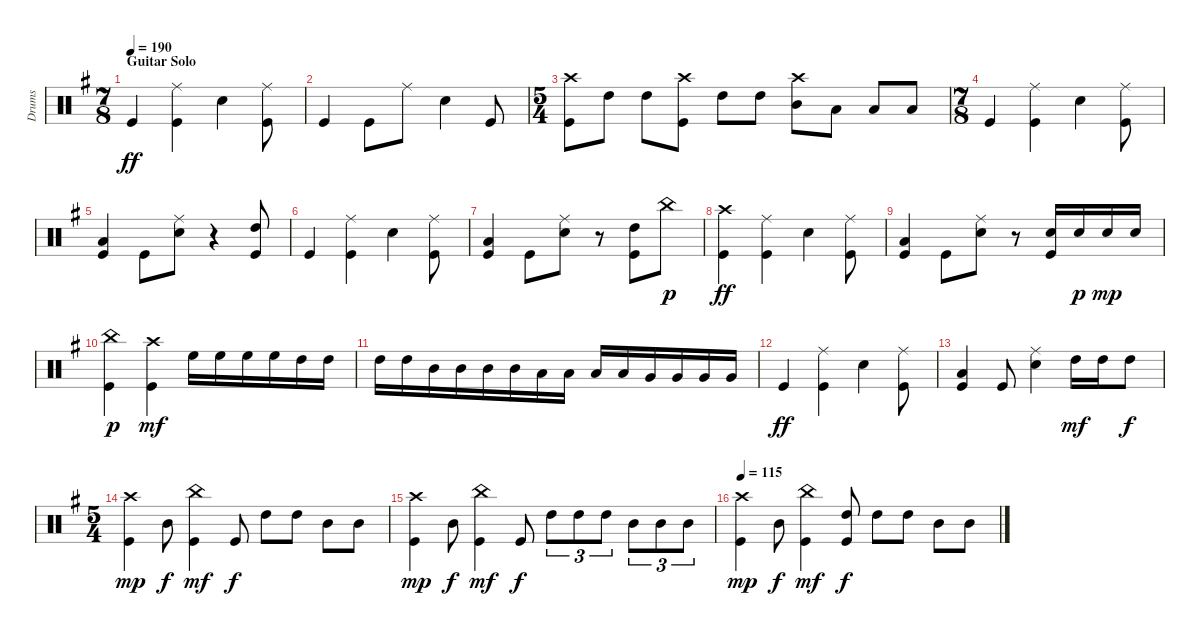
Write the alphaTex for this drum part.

\track ("Drums" "Drums") {instrument percussion}
\staff {score}
\articulation defaults
\ts (7 8)
\section ("" "Guitar Solo")
\tempo 190
\clef neutral
\ks eminor "Kick (hit)".4{dy ff}
("Ride (middle)" "Kick (hit)").4 "Snare (hit) 2".4 ("Ride (middle)" "Kick (hit)").8 |
"Kick (hit)".4 "Kick (hit)".8 "Ride (middle)".8 "Snare (hit) 2".4 "Kick (hit)".8 |
\ts (5 4)
("Crash high (hit)" "Kick (hit)").8 "High Tom (hit)".8 "High Tom (hit)".8 ("Crash high (hit)" "Kick (hit)").8 "High Tom (hit)".8 "High Tom (hit)".8 ("Crash high (hit)" "Mid Tom (hit)").8 "Low Tom (hit)".8 "Low Tom (hit)".8 "Low Tom (hit)".8 |
\ts (7 8)
"Kick (hit)".4 ("Ride (middle)" "Kick (hit)").4 "Snare (hit) 2".4 ("Ride (middle)" "Kick (hit)").8 |
("Low Tom (hit)" "Kick (hit)").4 "Kick (hit)".8 ("Ride (middle)" "Snare (hit) 2").8 r.4 ("High Tom (hit)" "Kick (hit)").8 |
"Kick (hit)".4 ("Ride (middle)" "Kick (hit)").4 "Snare (hit) 2".4 ("Ride (middle)" "Kick (hit)").8 |
("Low Tom (hit)" "Kick (hit)").4 "Kick (hit)".8 ("Ride (middle)" "Snare (hit) 2").8 r.8 ("High Tom (hit)" "Kick (hit)").8 "China (hit)".8{dy p} |
("Crash high (hit)" "Kick (hit)").4{dy ff} ("Ride (middle)" "Kick (hit)").4 "Snare (hit) 2".4 ("Ride (middle)" "Kick (hit)").8 |
("Low Tom (hit)" "Kick (hit)").4 "Kick (hit)".8 ("Ride (middle)" "Snare (hit) 2").8 r.8 ("Snare (hit) 2" "Kick (hit)").16 "Snare (hit) 2".16{dy p} "Snare (hit) 2".16{dy mp} "Snare (hit) 2".16 |
("China (hit)" "Kick (hit)").4{dy p} ("Crash high (hit)" "Kick (hit)").4{dy mf} "High Floor Tom (hit)".16 "High Floor Tom (hit)".16 "High Floor Tom (hit)".16 "High Floor Tom (hit)".16 "High Tom (hit)".16 "High Tom (hit)".16 |
"High Tom (hit)".16 "High Tom (hit)".16 "Mid Tom (hit)".16 "Mid Tom (hit)".16 "Mid Tom (hit)".16 "Mid Tom (hit)".16 "Low Tom (hit)".16 "Low Tom (hit)".16 "Low Tom (hit)".16 "Low Tom (hit)".16 "Very Low Tom (hit)".16 "Very Low Tom (hit)".16 "Very Low Tom (hit)".16 "Very Low Tom (hit)".16 |
"Kick (hit)".4{dy ff} ("Ride (middle)" "Kick (hit)").4 "Snare (hit) 2".4 ("Ride (middle)" "Kick (hit)").8 |
("Low Tom (hit)" "Kick (hit)").4 "Kick (hit)".8 ("Ride (middle)" "Snare (hit) 2").4 "High Tom (hit)".16{dy mf} "High Tom (hit)".16 "High Tom (hit)".8{dy f} |
\ts (5 4)
("Crash high (hit)" "Kick (hit)").4{dy mp} "Mid Tom (hit)".8{dy f} ("China (hit)" "Kick (hit)").4{dy mf} "Kick (hit)".8{dy f} "High Tom (hit)".8 "High Tom (hit)".8 "Mid Tom (hit)".8 "Mid Tom (hit)".8 |
("Crash high (hit)" "Kick (hit)").4{dy mp} "Mid Tom (hit)".8{dy f} ("China (hit)" "Kick (hit)").4{dy mf} "Kick (hit)".8{dy f} "High Tom (hit)".8{tu (3 2)} "High Tom (hit)".8{tu (3 2)} "High Tom (hit)".8{tu (3 2)} "Mid Tom (hit)".8{tu (3 2)} "Mid Tom (hit)".8{tu (3 2)} "Mid Tom (hit)".8{tu (3 2)} |
\tempo 115
("Crash high (hit)" "Kick (hit)").4{dy mp} "Mid Tom (hit)".8{dy f} ("China (hit)" "Kick (hit)").4{dy mf} ("High Tom (hit)" "Kick (hit)").8{dy f} "High Tom (hit)".8 "High Tom (hit)".8 "Mid Tom (hit)".8 "Mid Tom (hit)".8
